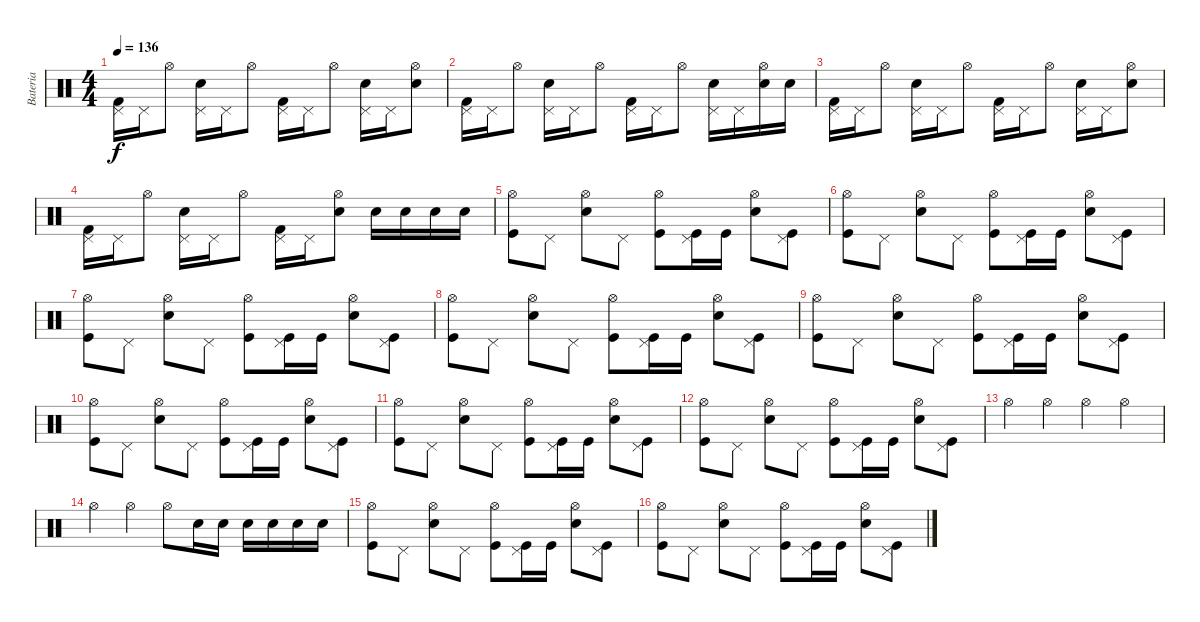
\track ("Bateria" "Bateria") {instrument percussion}
\staff {score}
\articulation defaults
\ts (4 4)
\tempo 136
\clef neutral
\ks c
("Pedal Hi-Hat (hit)" "Kick (hit) 2").16{dy f} "Pedal Hi-Hat (hit)".16 "Hi-Hat (open)".8 ("Pedal Hi-Hat (hit)" "Electric Snare (hit)").16 "Pedal Hi-Hat (hit)".16 "Hi-Hat (open)".8 ("Pedal Hi-Hat (hit)" "Kick (hit) 2").16 "Pedal Hi-Hat (hit)".16 "Hi-Hat (open)".8 ("Pedal Hi-Hat (hit)" "Electric Snare (hit)").16 "Pedal Hi-Hat (hit)".16 ("Hi-Hat (open)" "Electric Snare (hit)").8 |
("Pedal Hi-Hat (hit)" "Kick (hit) 2").16 "Pedal Hi-Hat (hit)".16 "Hi-Hat (open)".8 ("Pedal Hi-Hat (hit)" "Electric Snare (hit)").16 "Pedal Hi-Hat (hit)".16 "Hi-Hat (open)".8 ("Pedal Hi-Hat (hit)" "Kick (hit) 2").16 "Pedal Hi-Hat (hit)".16 "Hi-Hat (open)".8 ("Pedal Hi-Hat (hit)" "Electric Snare (hit)").16 "Pedal Hi-Hat (hit)".16 ("Hi-Hat (open)" "Electric Snare (hit)").16 "Electric Snare (hit)".16 |
("Pedal Hi-Hat (hit)" "Kick (hit) 2").16 "Pedal Hi-Hat (hit)".16 "Hi-Hat (open)".8 ("Pedal Hi-Hat (hit)" "Electric Snare (hit)").16 "Pedal Hi-Hat (hit)".16 "Hi-Hat (open)".8 ("Pedal Hi-Hat (hit)" "Kick (hit) 2").16 "Pedal Hi-Hat (hit)".16 "Hi-Hat (open)".8 ("Pedal Hi-Hat (hit)" "Electric Snare (hit)").16 "Pedal Hi-Hat (hit)".16 ("Hi-Hat (open)" "Electric Snare (hit)").8 |
("Pedal Hi-Hat (hit)" "Kick (hit) 2").16 "Pedal Hi-Hat (hit)".16 "Hi-Hat (open)".8 ("Pedal Hi-Hat (hit)" "Electric Snare (hit)").16 "Pedal Hi-Hat (hit)".16 "Hi-Hat (open)".8 ("Pedal Hi-Hat (hit)" "Kick (hit) 2").16 "Pedal Hi-Hat (hit)".16 ("Hi-Hat (open)" "Electric Snare (hit)").8 "Electric Snare (hit)".16 "Electric Snare (hit)".16 "Electric Snare (hit)".16 "Electric Snare (hit)".16 |
("Hi-Hat (open)" "Kick (hit)").8 "Pedal Hi-Hat (hit)".8 ("Hi-Hat (open)" "Snare (hit) 2").8 "Pedal Hi-Hat (hit)".8 ("Hi-Hat (open)" "Kick (hit)").8 ("Pedal Hi-Hat (hit)" "Kick (hit)").16 "Kick (hit)".16 ("Hi-Hat (open)" "Snare (hit) 2").8 ("Pedal Hi-Hat (hit)" "Kick (hit)").8 |
("Hi-Hat (open)" "Kick (hit)").8 "Pedal Hi-Hat (hit)".8 ("Hi-Hat (open)" "Snare (hit) 2").8 "Pedal Hi-Hat (hit)".8 ("Hi-Hat (open)" "Kick (hit)").8 ("Pedal Hi-Hat (hit)" "Kick (hit)").16 "Kick (hit)".16 ("Hi-Hat (open)" "Snare (hit) 2").8 ("Pedal Hi-Hat (hit)" "Kick (hit)").8 |
("Hi-Hat (open)" "Kick (hit)").8 "Pedal Hi-Hat (hit)".8 ("Hi-Hat (open)" "Snare (hit) 2").8 "Pedal Hi-Hat (hit)".8 ("Hi-Hat (open)" "Kick (hit)").8 ("Pedal Hi-Hat (hit)" "Kick (hit)").16 "Kick (hit)".16 ("Hi-Hat (open)" "Snare (hit) 2").8 ("Pedal Hi-Hat (hit)" "Kick (hit)").8 |
("Hi-Hat (open)" "Kick (hit)").8 "Pedal Hi-Hat (hit)".8 ("Hi-Hat (open)" "Snare (hit) 2").8 "Pedal Hi-Hat (hit)".8 ("Hi-Hat (open)" "Kick (hit)").8 ("Pedal Hi-Hat (hit)" "Kick (hit)").16 "Kick (hit)".16 ("Hi-Hat (open)" "Snare (hit) 2").8 ("Pedal Hi-Hat (hit)" "Kick (hit)").8 |
("Hi-Hat (open)" "Kick (hit)").8 "Pedal Hi-Hat (hit)".8 ("Hi-Hat (open)" "Snare (hit) 2").8 "Pedal Hi-Hat (hit)".8 ("Hi-Hat (open)" "Kick (hit)").8 ("Pedal Hi-Hat (hit)" "Kick (hit)").16 "Kick (hit)".16 ("Hi-Hat (open)" "Snare (hit) 2").8 ("Pedal Hi-Hat (hit)" "Kick (hit)").8 |
("Hi-Hat (open)" "Kick (hit)").8 "Pedal Hi-Hat (hit)".8 ("Hi-Hat (open)" "Snare (hit) 2").8 "Pedal Hi-Hat (hit)".8 ("Hi-Hat (open)" "Kick (hit)").8 ("Pedal Hi-Hat (hit)" "Kick (hit)").16 "Kick (hit)".16 ("Hi-Hat (open)" "Snare (hit) 2").8 ("Pedal Hi-Hat (hit)" "Kick (hit)").8 |
("Hi-Hat (open)" "Kick (hit)").8 "Pedal Hi-Hat (hit)".8 ("Hi-Hat (open)" "Snare (hit) 2").8 "Pedal Hi-Hat (hit)".8 ("Hi-Hat (open)" "Kick (hit)").8 ("Pedal Hi-Hat (hit)" "Kick (hit)").16 "Kick (hit)".16 ("Hi-Hat (open)" "Snare (hit) 2").8 ("Pedal Hi-Hat (hit)" "Kick (hit)").8 |
("Hi-Hat (open)" "Kick (hit)").8 "Pedal Hi-Hat (hit)".8 ("Hi-Hat (open)" "Snare (hit) 2").8 "Pedal Hi-Hat (hit)".8 ("Hi-Hat (open)" "Kick (hit)").8 ("Pedal Hi-Hat (hit)" "Kick (hit)").16 "Kick (hit)".16 ("Hi-Hat (open)" "Snare (hit) 2").8 ("Pedal Hi-Hat (hit)" "Kick (hit)").8 |
"Hi-Hat (open)".4 "Hi-Hat (open)".4 "Hi-Hat (open)".4 "Hi-Hat (open)".4 |
"Hi-Hat (open)".4 "Hi-Hat (open)".4 "Hi-Hat (open)".8 "Snare (hit) 2".16 "Snare (hit) 2".16 "Snare (hit) 2".16 "Snare (hit) 2".16 "Snare (hit) 2".16 "Snare (hit) 2".16 |
("Hi-Hat (open)" "Kick (hit)").8 "Pedal Hi-Hat (hit)".8 ("Hi-Hat (open)" "Snare (hit) 2").8 "Pedal Hi-Hat (hit)".8 ("Hi-Hat (open)" "Kick (hit)").8 ("Pedal Hi-Hat (hit)" "Kick (hit)").16 "Kick (hit)".16 ("Hi-Hat (open)" "Snare (hit) 2").8 ("Pedal Hi-Hat (hit)" "Kick (hit)").8 |
("Hi-Hat (open)" "Kick (hit)").8 "Pedal Hi-Hat (hit)".8 ("Hi-Hat (open)" "Snare (hit) 2").8 "Pedal Hi-Hat (hit)".8 ("Hi-Hat (open)" "Kick (hit)").8 ("Pedal Hi-Hat (hit)" "Kick (hit)").16 "Kick (hit)".16 ("Hi-Hat (open)" "Snare (hit) 2").8 ("Pedal Hi-Hat (hit)" "Kick (hit)").8
